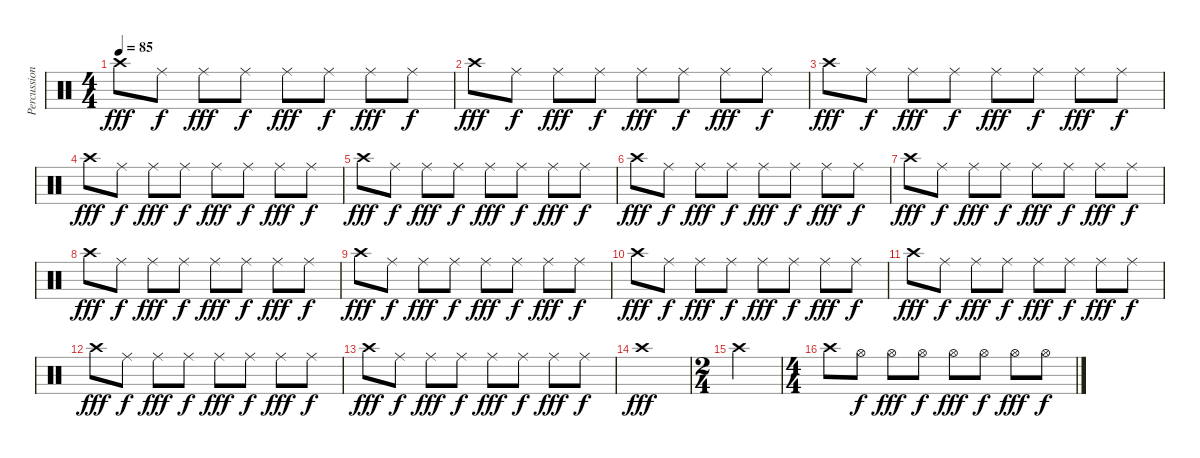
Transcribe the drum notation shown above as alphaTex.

\track ("Percussion" "Percussion") {instrument percussion}
\staff {score}
\articulation defaults
\ts (4 4)
\tempo 85
\clef neutral
\ks c "Crash high (hit)".8{dy fff} "Ride (middle)".8{dy f} "Ride (middle)".8{dy fff} "Ride (middle)".8{dy f} "Ride (middle)".8{dy fff} "Ride (middle)".8{dy f} "Ride (middle)".8{dy fff} "Ride (middle)".8{dy f}
|
"Crash high (hit)".8{dy fff} "Ride (middle)".8{dy f} "Ride (middle)".8{dy fff} "Ride (middle)".8{dy f} "Ride (middle)".8{dy fff} "Ride (middle)".8{dy f} "Ride (middle)".8{dy fff} "Ride (middle)".8{dy f} |
"Crash high (hit)".8{dy fff} "Ride (middle)".8{dy f} "Ride (middle)".8{dy fff} "Ride (middle)".8{dy f} "Ride (middle)".8{dy fff} "Ride (middle)".8{dy f} "Ride (middle)".8{dy fff} "Ride (middle)".8{dy f} |
"Crash high (hit)".8{dy fff} "Ride (middle)".8{dy f} "Ride (middle)".8{dy fff} "Ride (middle)".8{dy f} "Ride (middle)".8{dy fff} "Ride (middle)".8{dy f} "Ride (middle)".8{dy fff} "Ride (middle)".8{dy f} |
"Crash high (hit)".8{dy fff} "Ride (middle)".8{dy f} "Ride (middle)".8{dy fff} "Ride (middle)".8{dy f} "Ride (middle)".8{dy fff} "Ride (middle)".8{dy f} "Ride (middle)".8{dy fff} "Ride (middle)".8{dy f} |
"Crash high (hit)".8{dy fff} "Ride (middle)".8{dy f} "Ride (middle)".8{dy fff} "Ride (middle)".8{dy f} "Ride (middle)".8{dy fff} "Ride (middle)".8{dy f} "Ride (middle)".8{dy fff} "Ride (middle)".8{dy f} |
"Crash high (hit)".8{dy fff} "Ride (middle)".8{dy f} "Ride (middle)".8{dy fff} "Ride (middle)".8{dy f} "Ride (middle)".8{dy fff} "Ride (middle)".8{dy f} "Ride (middle)".8{dy fff} "Ride (middle)".8{dy f} |
"Crash high (hit)".8{dy fff} "Ride (middle)".8{dy f} "Ride (middle)".8{dy fff} "Ride (middle)".8{dy f} "Ride (middle)".8{dy fff} "Ride (middle)".8{dy f} "Ride (middle)".8{dy fff} "Ride (middle)".8{dy f} |
"Crash high (hit)".8{dy fff} "Ride (middle)".8{dy f} "Ride (middle)".8{dy fff} "Ride (middle)".8{dy f} "Ride (middle)".8{dy fff} "Ride (middle)".8{dy f} "Ride (middle)".8{dy fff} "Ride (middle)".8{dy f} |
"Crash high (hit)".8{dy fff} "Ride (middle)".8{dy f} "Ride (middle)".8{dy fff} "Ride (middle)".8{dy f} "Ride (middle)".8{dy fff} "Ride (middle)".8{dy f} "Ride (middle)".8{dy fff} "Ride (middle)".8{dy f} |
"Crash high (hit)".8{dy fff} "Ride (middle)".8{dy f} "Ride (middle)".8{dy fff} "Ride (middle)".8{dy f} "Ride (middle)".8{dy fff} "Ride (middle)".8{dy f} "Ride (middle)".8{dy fff} "Ride (middle)".8{dy f} |
"Crash high (hit)".8{dy fff} "Ride (middle)".8{dy f} "Ride (middle)".8{dy fff} "Ride (middle)".8{dy f} "Ride (middle)".8{dy fff} "Ride (middle)".8{dy f} "Ride (middle)".8{dy fff} "Ride (middle)".8{dy f} |
"Crash high (hit)".8{dy fff} "Ride (middle)".8{dy f} "Ride (middle)".8{dy fff} "Ride (middle)".8{dy f} "Ride (middle)".8{dy fff} "Ride (middle)".8{dy f} "Ride (middle)".8{dy fff} "Ride (middle)".8{dy f} |
"Crash high (hit)".1{dy fff} |
\ts (2 4)
"Crash high (hit)".2 |
\ts (4 4)
"Crash high (hit)".8 "Hi-Hat (open)".8{dy f} "Hi-Hat (open)".8{dy fff} "Hi-Hat (open)".8{dy f} "Hi-Hat (open)".8{dy fff} "Hi-Hat (open)".8{dy f} "Hi-Hat (open)".8{dy fff} "Hi-Hat (open)".8{dy f}
